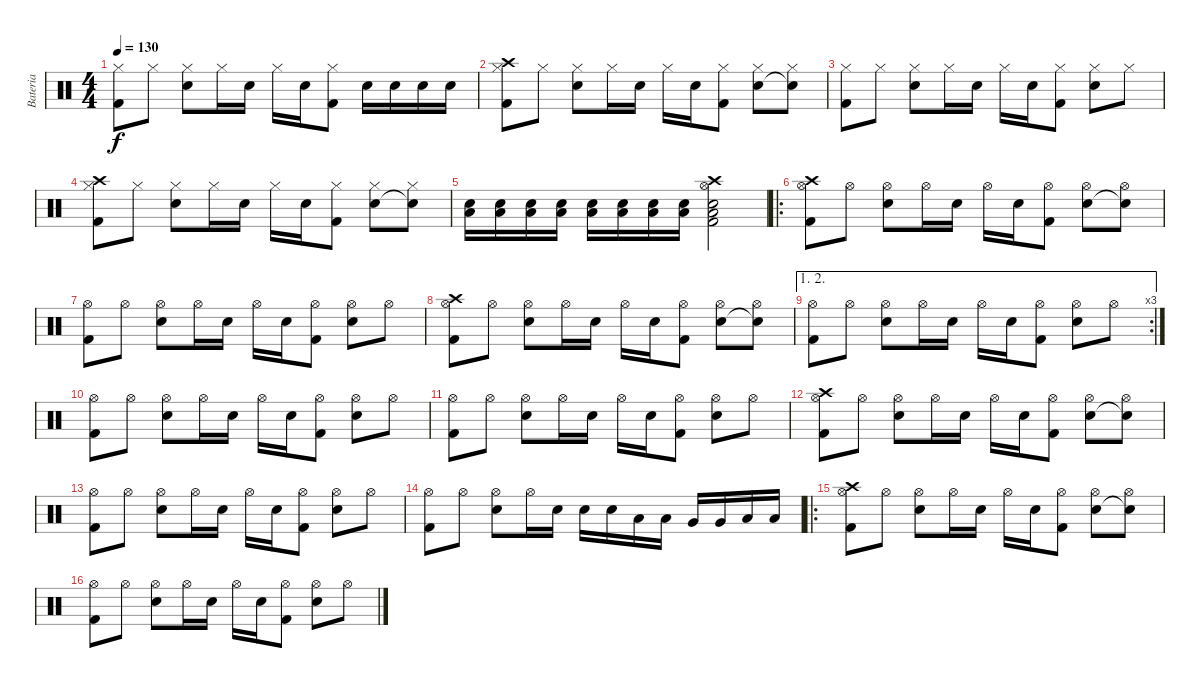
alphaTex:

\track ("Bateria" "Bateria") {instrument percussion}
\staff {score}
\articulation defaults
\ts (4 4)
\tempo 130
\clef neutral
\ks c
("Hi-Hat (closed)" "Kick (hit) 2").8{dy f} "Hi-Hat (closed)".8 ("Hi-Hat (closed)" "Snare (hit) 2").8 "Hi-Hat (closed)".16 "Snare (hit) 2".16 "Hi-Hat (closed)".16 "Snare (hit) 2".16 ("Hi-Hat (closed)" "Kick (hit) 2").8 "Snare (hit) 2".16 "Snare (hit) 2".16 "Snare (hit) 2".16 "Snare (hit) 2".16 |
("Hi-Hat (closed)" "Crash high (hit)" "Kick (hit) 2").8 "Hi-Hat (closed)".8 ("Hi-Hat (closed)" "Snare (hit) 2").8 "Hi-Hat (closed)".16 "Snare (hit) 2".16 "Hi-Hat (closed)".16 "Snare (hit) 2".16 ("Hi-Hat (closed)" "Kick (hit) 2").8 ("Hi-Hat (closed)" "Snare (hit) 2").8 ("Hi-Hat (closed)" "Snare (hit)"{t}).8 |
("Hi-Hat (closed)" "Kick (hit) 2").8 "Hi-Hat (closed)".8 ("Hi-Hat (closed)" "Snare (hit) 2").8 "Hi-Hat (closed)".16 "Snare (hit) 2".16 "Hi-Hat (closed)".16 "Snare (hit) 2".16 ("Hi-Hat (closed)" "Kick (hit) 2").8 ("Hi-Hat (closed)" "Snare (hit) 2").8 "Hi-Hat (closed)".8 |
("Hi-Hat (closed)" "Crash high (hit)" "Kick (hit) 2").8 "Hi-Hat (closed)".8 ("Hi-Hat (closed)" "Snare (hit) 2").8 "Hi-Hat (closed)".16 "Snare (hit) 2".16 "Hi-Hat (closed)".16 "Snare (hit) 2".16 ("Hi-Hat (closed)" "Kick (hit) 2").8 ("Hi-Hat (closed)" "Snare (hit) 2").8 ("Hi-Hat (closed)" "Snare (hit)"{t}).8 |
("Low Floor Tom (hit)" "Snare (hit) 2").16{volume 12} ("Low Floor Tom (hit)" "Snare (hit) 2").16 ("Low Floor Tom (hit)" "Snare (hit) 2").16{volume 13} ("Low Floor Tom (hit)" "Snare (hit) 2").16 ("Low Floor Tom (hit)" "Snare (hit) 2").16{volume 14} ("Low Floor Tom (hit)" "Snare (hit) 2").16 ("Low Floor Tom (hit)" "Snare (hit) 2").16 ("Low Floor Tom (hit)" "Snare (hit) 2").16 ("Hi-Hat (open)" "Crash high (hit)" "Low Floor Tom (hit)" "Snare (hit) 2" "Kick (hit) 2").2 |
\ro
("Hi-Hat (open)" "Crash high (hit)" "Kick (hit) 2").8 "Hi-Hat (open)".8 ("Hi-Hat (open)" "Snare (hit) 2").8 "Hi-Hat (open)".16 "Snare (hit) 2".16 "Hi-Hat (open)".16 "Snare (hit) 2".16 ("Hi-Hat (open)" "Kick (hit) 2").8 ("Hi-Hat (open)" "Snare (hit) 2").8 ("Hi-Hat (open)" "Snare (hit)"{t}).8 |
("Hi-Hat (open)" "Kick (hit) 2").8 "Hi-Hat (open)".8 ("Hi-Hat (open)" "Snare (hit) 2").8 "Hi-Hat (open)".16 "Snare (hit) 2".16 "Hi-Hat (open)".16 "Snare (hit) 2".16 ("Hi-Hat (open)" "Kick (hit) 2").8 ("Hi-Hat (open)" "Snare (hit) 2").8 "Hi-Hat (open)".8 |
("Hi-Hat (open)" "Crash high (hit)" "Kick (hit) 2").8 "Hi-Hat (open)".8 ("Hi-Hat (open)" "Snare (hit) 2").8 "Hi-Hat (open)".16 "Snare (hit) 2".16 "Hi-Hat (open)".16 "Snare (hit) 2".16 ("Hi-Hat (open)" "Kick (hit) 2").8 ("Hi-Hat (open)" "Snare (hit) 2").8 ("Hi-Hat (open)" "Snare (hit)"{t}).8 |
\ae (1 2)
\rc 3
("Hi-Hat (open)" "Kick (hit) 2").8 "Hi-Hat (open)".8 ("Hi-Hat (open)" "Snare (hit) 2").8 "Hi-Hat (open)".16 "Snare (hit) 2".16 "Hi-Hat (open)".16 "Snare (hit) 2".16 ("Hi-Hat (open)" "Kick (hit) 2").8 ("Hi-Hat (open)" "Snare (hit) 2").8 "Hi-Hat (open)".8 |
("Hi-Hat (open)" "Kick (hit) 2").8 "Hi-Hat (open)".8 ("Hi-Hat (open)" "Snare (hit) 2").8 "Hi-Hat (open)".16 "Snare (hit) 2".16 "Hi-Hat (open)".16 "Snare (hit) 2".16 ("Hi-Hat (open)" "Kick (hit) 2").8 ("Hi-Hat (open)" "Snare (hit) 2").8 "Hi-Hat (open)".8 |
("Hi-Hat (open)" "Kick (hit) 2").8 "Hi-Hat (open)".8 ("Hi-Hat (open)" "Snare (hit) 2").8 "Hi-Hat (open)".16 "Snare (hit) 2".16 "Hi-Hat (open)".16 "Snare (hit) 2".16 ("Hi-Hat (open)" "Kick (hit) 2").8 ("Hi-Hat (open)" "Snare (hit) 2").8 "Hi-Hat (open)".8 |
("Hi-Hat (open)" "Crash high (hit)" "Kick (hit) 2").8 "Hi-Hat (open)".8 ("Hi-Hat (open)" "Snare (hit) 2").8 "Hi-Hat (open)".16 "Snare (hit) 2".16 "Hi-Hat (open)".16 "Snare (hit) 2".16 ("Hi-Hat (open)" "Kick (hit) 2").8 ("Hi-Hat (open)" "Snare (hit) 2").8 ("Hi-Hat (open)" "Snare (hit)"{t}).8 |
("Hi-Hat (open)" "Kick (hit) 2").8 "Hi-Hat (open)".8 ("Hi-Hat (open)" "Snare (hit) 2").8 "Hi-Hat (open)".16 "Snare (hit) 2".16 "Hi-Hat (open)".16 "Snare (hit) 2".16 ("Hi-Hat (open)" "Kick (hit) 2").8 ("Hi-Hat (open)" "Snare (hit) 2").8 "Hi-Hat (open)".8 |
("Hi-Hat (open)" "Kick (hit) 2").8 "Hi-Hat (open)".8 ("Hi-Hat (open)" "Snare (hit) 2").8 "Hi-Hat (open)".16 "Snare (hit) 2".16 "Snare (hit) 2".16 "Snare (hit) 2".16 "Low Tom (hit)".16 "Low Tom (hit)".16 "Very Low Tom (hit)".16 "Very Low Tom (hit)".16 "Low Floor Tom (hit)".16 "Low Floor Tom (hit)".16 |
\ro
("Hi-Hat (open)" "Crash high (hit)" "Kick (hit) 2").8 "Hi-Hat (open)".8 ("Hi-Hat (open)" "Snare (hit) 2").8 "Hi-Hat (open)".16 "Snare (hit) 2".16 "Hi-Hat (open)".16 "Snare (hit) 2".16 ("Hi-Hat (open)" "Kick (hit) 2").8 ("Hi-Hat (open)" "Snare (hit) 2").8 ("Hi-Hat (open)" "Snare (hit)"{t}).8 |
("Hi-Hat (open)" "Kick (hit) 2").8 "Hi-Hat (open)".8 ("Hi-Hat (open)" "Snare (hit) 2").8 "Hi-Hat (open)".16 "Snare (hit) 2".16 "Hi-Hat (open)".16 "Snare (hit) 2".16 ("Hi-Hat (open)" "Kick (hit) 2").8 ("Hi-Hat (open)" "Snare (hit) 2").8 "Hi-Hat (open)".8
